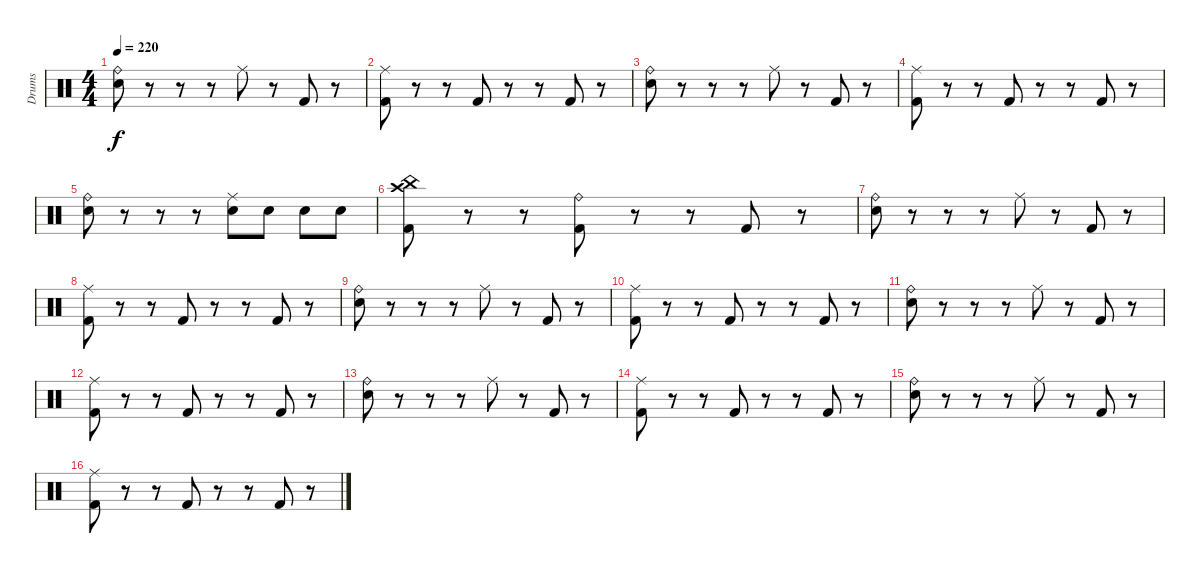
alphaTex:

\track ("Drums" "Drums") {instrument percussion}
\staff {score}
\articulation defaults
\ts (4 4)
\tempo 220
\clef neutral
\ks c
("Ride (bell)" "Electric Snare (hit)").8{dy f} r.8 r.8 r.8 "Ride (middle)".8 r.8 "Kick (hit) 2".8 r.8 |
("Ride (middle)" "Kick (hit) 2").8 r.8 r.8 "Kick (hit) 2".8 r.8 r.8 "Kick (hit) 2".8 r.8 |
("Ride (bell)" "Electric Snare (hit)").8 r.8 r.8 r.8 "Ride (middle)".8 r.8 "Kick (hit) 2".8 r.8 |
("Ride (middle)" "Kick (hit) 2").8 r.8 r.8 "Kick (hit) 2".8 r.8 r.8 "Kick (hit) 2".8 r.8 |
("Ride (bell)" "Electric Snare (hit)").8 r.8 r.8 r.8 ("Ride (middle)" "Electric Snare (hit)").8 "Electric Snare (hit)".8 "Electric Snare (hit)".8 "Electric Snare (hit)".8 |
("China (hit)" "Crash high (hit)" "Kick (hit) 2").8 r.8 r.8 ("Ride (bell)" "Kick (hit) 2").8 r.8 r.8 "Kick (hit) 2".8 r.8 |
("Ride (bell)" "Electric Snare (hit)").8 r.8 r.8 r.8 "Ride (middle)".8 r.8 "Kick (hit) 2".8 r.8 |
("Ride (middle)" "Kick (hit) 2").8 r.8 r.8 "Kick (hit) 2".8 r.8 r.8 "Kick (hit) 2".8 r.8 |
("Ride (bell)" "Electric Snare (hit)").8 r.8 r.8 r.8 "Ride (middle)".8 r.8 "Kick (hit) 2".8 r.8 |
("Ride (middle)" "Kick (hit) 2").8 r.8 r.8 "Kick (hit) 2".8 r.8 r.8 "Kick (hit) 2".8 r.8 |
("Ride (bell)" "Electric Snare (hit)").8 r.8 r.8 r.8 "Ride (middle)".8 r.8 "Kick (hit) 2".8 r.8 |
("Ride (middle)" "Kick (hit) 2").8 r.8 r.8 "Kick (hit) 2".8 r.8 r.8 "Kick (hit) 2".8 r.8 |
("Ride (bell)" "Electric Snare (hit)").8 r.8 r.8 r.8 "Ride (middle)".8 r.8 "Kick (hit) 2".8 r.8 |
("Ride (middle)" "Kick (hit) 2").8 r.8 r.8 "Kick (hit) 2".8 r.8 r.8 "Kick (hit) 2".8 r.8 |
("Ride (bell)" "Electric Snare (hit)").8 r.8 r.8 r.8 "Ride (middle)".8 r.8 "Kick (hit) 2".8 r.8 |
("Ride (middle)" "Kick (hit) 2").8 r.8 r.8 "Kick (hit) 2".8 r.8 r.8 "Kick (hit) 2".8 r.8
